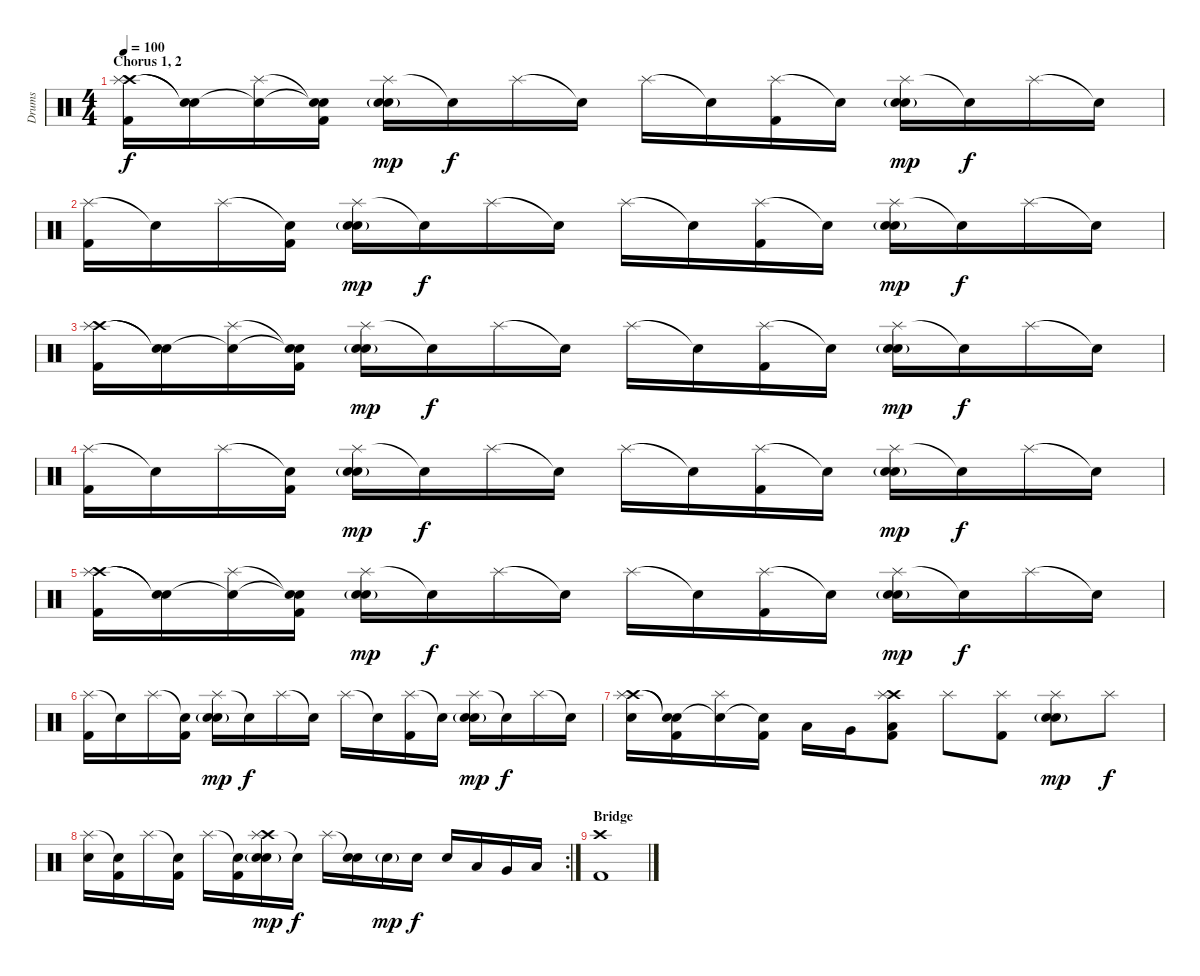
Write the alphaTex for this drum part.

\track ("Drums" "Drums") {instrument percussion}
\staff {score}
\articulation defaults
\ts (4 4)
\section ("" "Chorus 1, 2")
\tempo 100
\clef neutral
\ks c
("Crash high (hit)" "Splash (hit)" "Kick (hit) 2").16{dy f} ("Snare (hit)"{t} "Snare (hit)"{t}).16 ("Snare (hit)"{t} "Splash (hit)").16 ("Snare (hit)"{t} "Snare (hit)"{t} "Kick (hit) 2").16 ("Splash (hit)" "Snare (hit) 2"{g} "Electric Snare (hit)").16{dy mp} "Snare (hit)"{t}.16{dy f} "Splash (hit)".16 "Snare (hit)"{t}.16 "Splash (hit)".16 "Snare (hit)"{t}.16 ("Splash (hit)" "Kick (hit) 2").16 "Snare (hit)"{t}.16 ("Splash (hit)" "Snare (hit) 2"{g} "Electric Snare (hit)").16{dy mp} "Snare (hit)"{t}.16{dy f} "Splash (hit)".16 "Snare (hit)"{t}.16 |
("Splash (hit)" "Kick (hit) 2").16 "Snare (hit)"{t}.16 "Splash (hit)".16 ("Snare (hit)"{t} "Kick (hit) 2").16 ("Splash (hit)" "Snare (hit) 2"{g} "Electric Snare (hit)").16{dy mp} "Snare (hit)"{t}.16{dy f} "Splash (hit)".16 "Snare (hit)"{t}.16 "Splash (hit)".16 "Snare (hit)"{t}.16 ("Splash (hit)" "Kick (hit) 2").16 "Snare (hit)"{t}.16 ("Splash (hit)" "Snare (hit) 2"{g} "Electric Snare (hit)").16{dy mp} "Snare (hit)"{t}.16{dy f} "Splash (hit)".16 "Snare (hit)"{t}.16 |
("Crash high (hit)" "Splash (hit)" "Kick (hit) 2").16 ("Snare (hit)"{t} "Snare (hit)"{t}).16 ("Snare (hit)"{t} "Splash (hit)").16 ("Snare (hit)"{t} "Snare (hit)"{t} "Kick (hit) 2").16 ("Splash (hit)" "Snare (hit) 2"{g} "Electric Snare (hit)").16{dy mp} "Snare (hit)"{t}.16{dy f} "Splash (hit)".16 "Snare (hit)"{t}.16 "Splash (hit)".16 "Snare (hit)"{t}.16 ("Splash (hit)" "Kick (hit) 2").16 "Snare (hit)"{t}.16 ("Splash (hit)" "Snare (hit) 2"{g} "Electric Snare (hit)").16{dy mp} "Snare (hit)"{t}.16{dy f} "Splash (hit)".16 "Snare (hit)"{t}.16 |
("Splash (hit)" "Kick (hit) 2").16 "Snare (hit)"{t}.16 "Splash (hit)".16 ("Snare (hit)"{t} "Kick (hit) 2").16 ("Splash (hit)" "Snare (hit) 2"{g} "Electric Snare (hit)").16{dy mp} "Snare (hit)"{t}.16{dy f} "Splash (hit)".16 "Snare (hit)"{t}.16 "Splash (hit)".16 "Snare (hit)"{t}.16 ("Splash (hit)" "Kick (hit) 2").16 "Snare (hit)"{t}.16 ("Splash (hit)" "Snare (hit) 2"{g} "Electric Snare (hit)").16{dy mp} "Snare (hit)"{t}.16{dy f} "Splash (hit)".16 "Snare (hit)"{t}.16 |
("Crash high (hit)" "Splash (hit)" "Kick (hit) 2").16 ("Snare (hit)"{t} "Snare (hit)"{t}).16 ("Snare (hit)"{t} "Splash (hit)").16 ("Snare (hit)"{t} "Snare (hit)"{t} "Kick (hit) 2").16 ("Splash (hit)" "Snare (hit) 2"{g} "Electric Snare (hit)").16{dy mp} "Snare (hit)"{t}.16{dy f} "Splash (hit)".16 "Snare (hit)"{t}.16 "Splash (hit)".16 "Snare (hit)"{t}.16 ("Splash (hit)" "Kick (hit) 2").16 "Snare (hit)"{t}.16 ("Splash (hit)" "Snare (hit) 2"{g} "Electric Snare (hit)").16{dy mp} "Snare (hit)"{t}.16{dy f} "Splash (hit)".16 "Snare (hit)"{t}.16 |
("Splash (hit)" "Kick (hit) 2").16 "Snare (hit)"{t}.16 "Splash (hit)".16 ("Snare (hit)"{t} "Kick (hit) 2").16 ("Splash (hit)" "Snare (hit) 2"{g} "Electric Snare (hit)").16{dy mp} "Snare (hit)"{t}.16{dy f} "Splash (hit)".16 "Snare (hit)"{t}.16 "Splash (hit)".16 "Snare (hit)"{t}.16 ("Splash (hit)" "Kick (hit) 2").16 "Snare (hit)"{t}.16 ("Splash (hit)" "Snare (hit) 2"{g} "Electric Snare (hit)").16{dy mp} "Snare (hit)"{t}.16{dy f} "Splash (hit)".16 "Snare (hit)"{t}.16 |
("Crash high (hit)" "Splash (hit)" "Electric Snare (hit)").16 ("Snare (hit)"{t} "Snare (hit)"{t} "Kick (hit) 2").16 ("Snare (hit)"{t} "Splash (hit)").16 ("Snare (hit)"{t} "Kick (hit) 2").16 "Low Tom (hit)".16 "Very Low Tom (hit)".16 ("Crash high (hit)" "Splash (hit)" "Low Floor Tom (hit)" "Kick (hit) 2").8 "Splash (hit)".8 ("Splash (hit)" "Kick (hit) 2").8 ("Splash (hit)" "Snare (hit) 2"{g} "Electric Snare (hit)").8{dy mp} "Splash (hit)".8{dy f} |
\rc 2
("Splash (hit)" "Electric Snare (hit)").16 ("Snare (hit)"{t} "Kick (hit) 2").16 "Splash (hit)".16 ("Snare (hit)"{t} "Kick (hit) 2").16 "Splash (hit)".16 ("Snare (hit)"{t} "Kick (hit) 2").16 ("Crash high (hit)" "Splash (hit)" "Snare (hit) 2"{g} "Electric Snare (hit)").16{dy mp} "Snare (hit)"{t}.16{dy f} "Splash (hit)".16 ("Snare (hit)"{t} "Electric Snare (hit)").16 "Electric Snare (hit)"{g}.16{dy mp} "Electric Snare (hit)".16{dy f} "Electric Snare (hit)".16 "Low Tom (hit)".16 "Very Low Tom (hit)".16 "Low Floor Tom (hit)".16 |
\section ("" "Bridge")
("Crash high (hit)" "Kick (hit) 2").1
